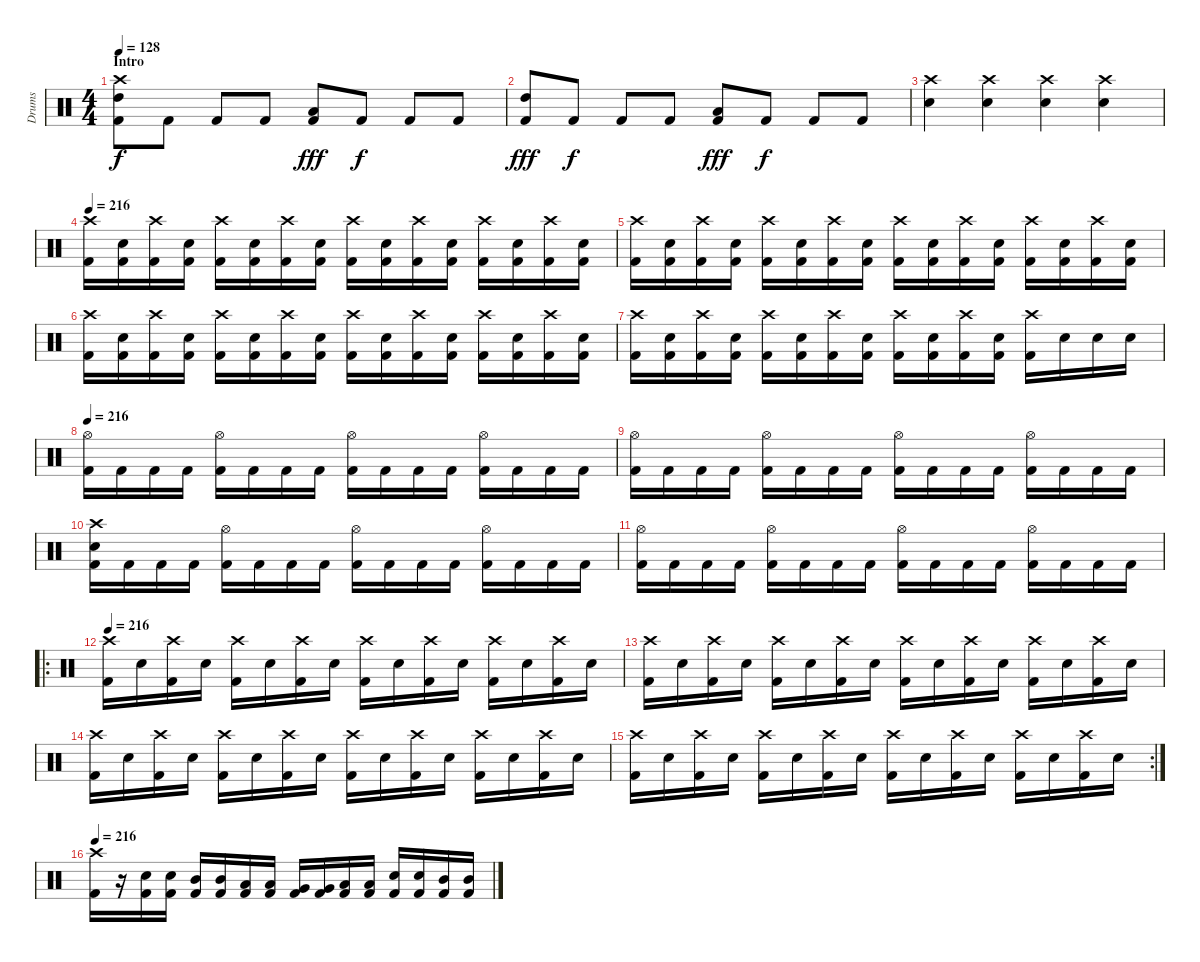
\track ("Drums" "Drums") {instrument percussion}
\staff {score}
\articulation defaults
\ts (4 4)
\section ("" "Intro")
\tempo 128
\tempo 216
\tempo 128
\clef neutral
\ks c
("Crash high (hit)" "High Tom (hit)" "Kick (hit) 2").8{dy f} "Kick (hit) 2".8 "Kick (hit) 2".8 "Kick (hit) 2".8 ("Low Tom (hit)" "Kick (hit) 2").8{dy fff} "Kick (hit) 2".8{dy f} "Kick (hit) 2".8 "Kick (hit) 2".8 |
("High Tom (hit)" "Kick (hit) 2").8{dy fff} "Kick (hit) 2".8{dy f} "Kick (hit) 2".8 "Kick (hit) 2".8 ("Low Tom (hit)" "Kick (hit) 2").8{dy fff} "Kick (hit) 2".8{dy f} "Kick (hit) 2".8 "Kick (hit) 2".8 |
("Crash high (hit)" "Electric Snare (hit)").4 ("Crash high (hit)" "Electric Snare (hit)").4 ("Crash high (hit)" "Electric Snare (hit)").4 ("Crash high (hit)" "Electric Snare (hit)").4 |
\tempo 216
("Crash high (hit)" "Kick (hit) 2").16 ("Electric Snare (hit)" "Kick (hit) 2").16 ("Crash high (hit)" "Kick (hit) 2").16 ("Electric Snare (hit)" "Kick (hit) 2").16 ("Crash high (hit)" "Kick (hit) 2").16 ("Electric Snare (hit)" "Kick (hit) 2").16 ("Crash high (hit)" "Kick (hit) 2").16 ("Electric Snare (hit)" "Kick (hit) 2").16 ("Crash high (hit)" "Kick (hit) 2").16 ("Electric Snare (hit)" "Kick (hit) 2").16 ("Crash high (hit)" "Kick (hit) 2").16 ("Electric Snare (hit)" "Kick (hit) 2").16 ("Crash high (hit)" "Kick (hit) 2").16 ("Electric Snare (hit)" "Kick (hit) 2").16 ("Crash high (hit)" "Kick (hit) 2").16 ("Electric Snare (hit)" "Kick (hit) 2").16 |
("Crash high (hit)" "Kick (hit) 2").16 ("Electric Snare (hit)" "Kick (hit) 2").16 ("Crash high (hit)" "Kick (hit) 2").16 ("Electric Snare (hit)" "Kick (hit) 2").16 ("Crash high (hit)" "Kick (hit) 2").16 ("Electric Snare (hit)" "Kick (hit) 2").16 ("Crash high (hit)" "Kick (hit) 2").16 ("Electric Snare (hit)" "Kick (hit) 2").16 ("Crash high (hit)" "Kick (hit) 2").16 ("Electric Snare (hit)" "Kick (hit) 2").16 ("Crash high (hit)" "Kick (hit) 2").16 ("Electric Snare (hit)" "Kick (hit) 2").16 ("Crash high (hit)" "Kick (hit) 2").16 ("Electric Snare (hit)" "Kick (hit) 2").16 ("Crash high (hit)" "Kick (hit) 2").16 ("Electric Snare (hit)" "Kick (hit) 2").16 |
("Crash high (hit)" "Kick (hit) 2").16 ("Electric Snare (hit)" "Kick (hit) 2").16 ("Crash high (hit)" "Kick (hit) 2").16 ("Electric Snare (hit)" "Kick (hit) 2").16 ("Crash high (hit)" "Kick (hit) 2").16 ("Electric Snare (hit)" "Kick (hit) 2").16 ("Crash high (hit)" "Kick (hit) 2").16 ("Electric Snare (hit)" "Kick (hit) 2").16 ("Crash high (hit)" "Kick (hit) 2").16 ("Electric Snare (hit)" "Kick (hit) 2").16 ("Crash high (hit)" "Kick (hit) 2").16 ("Electric Snare (hit)" "Kick (hit) 2").16 ("Crash high (hit)" "Kick (hit) 2").16 ("Electric Snare (hit)" "Kick (hit) 2").16 ("Crash high (hit)" "Kick (hit) 2").16 ("Electric Snare (hit)" "Kick (hit) 2").16 |
("Crash high (hit)" "Kick (hit) 2").16 ("Electric Snare (hit)" "Kick (hit) 2").16 ("Crash high (hit)" "Kick (hit) 2").16 ("Electric Snare (hit)" "Kick (hit) 2").16 ("Crash high (hit)" "Kick (hit) 2").16 ("Electric Snare (hit)" "Kick (hit) 2").16 ("Crash high (hit)" "Kick (hit) 2").16 ("Electric Snare (hit)" "Kick (hit) 2").16 ("Crash high (hit)" "Kick (hit) 2").16 ("Electric Snare (hit)" "Kick (hit) 2").16 ("Crash high (hit)" "Kick (hit) 2").16 ("Electric Snare (hit)" "Kick (hit) 2").16 ("Crash high (hit)" "Kick (hit) 2").16 "Electric Snare (hit)".16 "Electric Snare (hit)".16 "Electric Snare (hit)".16 |
\tempo 216
("Hi-Hat (open)" "Kick (hit) 2").16 "Kick (hit) 2".16 "Kick (hit) 2".16 "Kick (hit) 2".16 ("Hi-Hat (open)" "Kick (hit) 2").16 "Kick (hit) 2".16 "Kick (hit) 2".16 "Kick (hit) 2".16 ("Hi-Hat (open)" "Kick (hit) 2").16 "Kick (hit) 2".16 "Kick (hit) 2".16 "Kick (hit) 2".16 ("Hi-Hat (open)" "Kick (hit) 2").16 "Kick (hit) 2".16 "Kick (hit) 2".16 "Kick (hit) 2".16 |
("Hi-Hat (open)" "Kick (hit) 2").16 "Kick (hit) 2".16 "Kick (hit) 2".16 "Kick (hit) 2".16 ("Hi-Hat (open)" "Kick (hit) 2").16 "Kick (hit) 2".16 "Kick (hit) 2".16 "Kick (hit) 2".16 ("Hi-Hat (open)" "Kick (hit) 2").16 "Kick (hit) 2".16 "Kick (hit) 2".16 "Kick (hit) 2".16 ("Hi-Hat (open)" "Kick (hit) 2").16 "Kick (hit) 2".16 "Kick (hit) 2".16 "Kick (hit) 2".16 |
("Crash high (hit)" "Electric Snare (hit)" "Kick (hit) 2").16 "Kick (hit) 2".16 "Kick (hit) 2".16 "Kick (hit) 2".16 ("Hi-Hat (open)" "Kick (hit) 2").16 "Kick (hit) 2".16 "Kick (hit) 2".16 "Kick (hit) 2".16 ("Hi-Hat (open)" "Kick (hit) 2").16 "Kick (hit) 2".16 "Kick (hit) 2".16 "Kick (hit) 2".16 ("Hi-Hat (open)" "Kick (hit) 2").16 "Kick (hit) 2".16 "Kick (hit) 2".16 "Kick (hit) 2".16 |
("Hi-Hat (open)" "Kick (hit) 2").16 "Kick (hit) 2".16 "Kick (hit) 2".16 "Kick (hit) 2".16 ("Hi-Hat (open)" "Kick (hit) 2").16 "Kick (hit) 2".16 "Kick (hit) 2".16 "Kick (hit) 2".16 ("Hi-Hat (open)" "Kick (hit) 2").16 "Kick (hit) 2".16 "Kick (hit) 2".16 "Kick (hit) 2".16 ("Hi-Hat (open)" "Kick (hit) 2").16 "Kick (hit) 2".16 "Kick (hit) 2".16 "Kick (hit) 2".16 |
\ro
\tempo 216
("Crash high (hit)" "Kick (hit) 2").16 "Electric Snare (hit)".16 ("Crash high (hit)" "Kick (hit) 2").16 "Electric Snare (hit)".16 ("Crash high (hit)" "Kick (hit) 2").16 "Electric Snare (hit)".16 ("Crash high (hit)" "Kick (hit) 2").16 "Electric Snare (hit)".16 ("Crash high (hit)" "Kick (hit) 2").16 "Electric Snare (hit)".16 ("Crash high (hit)" "Kick (hit) 2").16 "Electric Snare (hit)".16 ("Crash high (hit)" "Kick (hit) 2").16 "Electric Snare (hit)".16 ("Crash high (hit)" "Kick (hit) 2").16 "Electric Snare (hit)".16 |
("Crash high (hit)" "Kick (hit) 2").16 "Electric Snare (hit)".16 ("Crash high (hit)" "Kick (hit) 2").16 "Electric Snare (hit)".16 ("Crash high (hit)" "Kick (hit) 2").16 "Electric Snare (hit)".16 ("Crash high (hit)" "Kick (hit) 2").16 "Electric Snare (hit)".16 ("Crash high (hit)" "Kick (hit) 2").16 "Electric Snare (hit)".16 ("Crash high (hit)" "Kick (hit) 2").16 "Electric Snare (hit)".16 ("Crash high (hit)" "Kick (hit) 2").16 "Electric Snare (hit)".16 ("Crash high (hit)" "Kick (hit) 2").16 "Electric Snare (hit)".16 |
("Crash high (hit)" "Kick (hit) 2").16 "Electric Snare (hit)".16 ("Crash high (hit)" "Kick (hit) 2").16 "Electric Snare (hit)".16 ("Crash high (hit)" "Kick (hit) 2").16 "Electric Snare (hit)".16 ("Crash high (hit)" "Kick (hit) 2").16 "Electric Snare (hit)".16 ("Crash high (hit)" "Kick (hit) 2").16 "Electric Snare (hit)".16 ("Crash high (hit)" "Kick (hit) 2").16 "Electric Snare (hit)".16 ("Crash high (hit)" "Kick (hit) 2").16 "Electric Snare (hit)".16 ("Crash high (hit)" "Kick (hit) 2").16 "Electric Snare (hit)".16 |
\rc 2
("Crash high (hit)" "Kick (hit) 2").16 "Electric Snare (hit)".16 ("Crash high (hit)" "Kick (hit) 2").16 "Electric Snare (hit)".16 ("Crash high (hit)" "Kick (hit) 2").16 "Electric Snare (hit)".16 ("Crash high (hit)" "Kick (hit) 2").16 "Electric Snare (hit)".16 ("Crash high (hit)" "Kick (hit) 2").16 "Electric Snare (hit)".16 ("Crash high (hit)" "Kick (hit) 2").16 "Electric Snare (hit)".16 ("Crash high (hit)" "Kick (hit) 2").16 "Electric Snare (hit)".16 ("Crash high (hit)" "Kick (hit) 2").16 "Electric Snare (hit)".16 |
\tempo 216
("Crash high (hit)" "Kick (hit) 2").16 r.16 ("Electric Snare (hit)" "Kick (hit) 2").16 ("Electric Snare (hit)" "Kick (hit) 2").16 ("Mid Tom (hit)" "Kick (hit) 2").16 ("Mid Tom (hit)" "Kick (hit) 2").16 ("Low Tom (hit)" "Kick (hit) 2").16 ("Low Tom (hit)" "Kick (hit) 2").16 ("Very Low Tom (hit)" "Kick (hit) 2").16 ("Very Low Tom (hit)" "Kick (hit) 2").16 ("Low Floor Tom (hit)" "Kick (hit) 2").16 ("Low Floor Tom (hit)" "Kick (hit) 2").16 ("Electric Snare (hit)" "Kick (hit) 2").16 ("Electric Snare (hit)" "Kick (hit) 2").16 ("Mid Tom (hit)" "Kick (hit) 2").16 ("Mid Tom (hit)" "Kick (hit) 2").16
